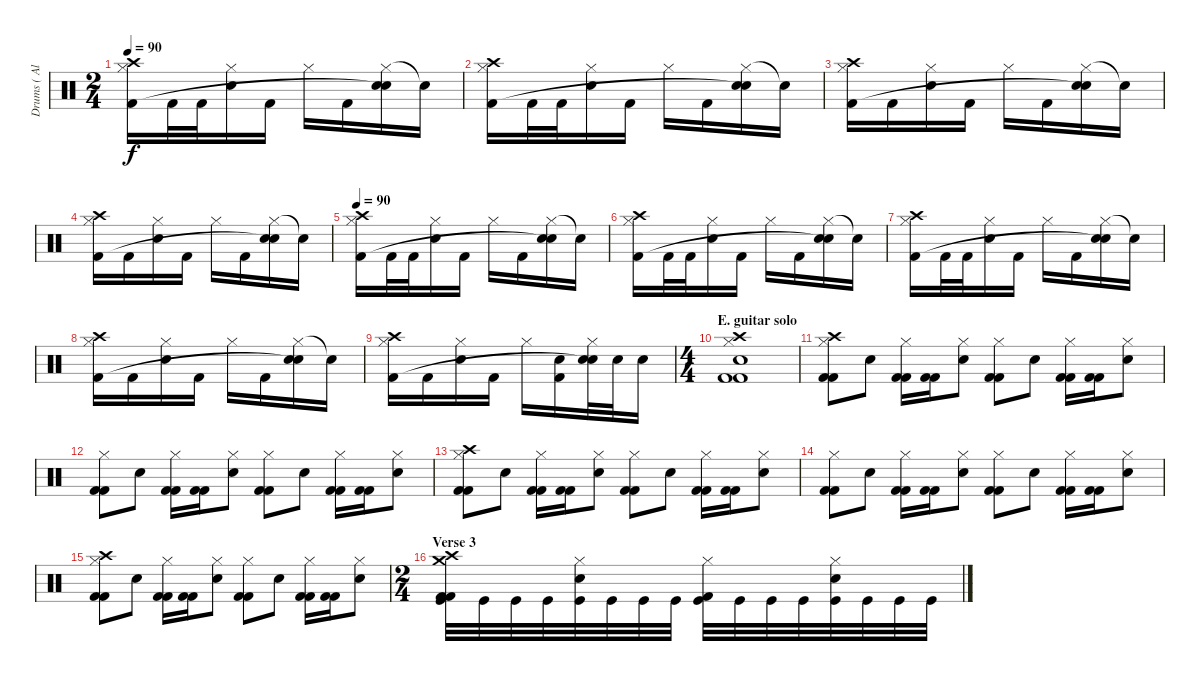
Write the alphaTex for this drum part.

\track ("Drums ( Alex Holzwarth)" "Drums ( Al") {instrument percussion}
\staff {score}
\articulation defaults
\ts (2 4)
\tempo 90
\clef neutral
\ks c
("Crash high (hit)" "Hi-Hat (closed)" "Kick (hit) 2").16{dy f} "Kick (hit) 2".32 "Kick (hit) 2".32 ("Hi-Hat (closed)" "Electric Snare (hit)").16 "Kick (hit) 2".16 "Hi-Hat (closed)".16 "Kick (hit) 2".16 ("Hi-Hat (closed)" "Electric Snare (hit)" "Snare (hit)"{t}).16 "Snare (hit)"{t}.16 |
("Crash high (hit)" "Hi-Hat (closed)" "Kick (hit) 2").16 "Kick (hit) 2".32 "Kick (hit) 2".32 ("Hi-Hat (closed)" "Electric Snare (hit)").16 "Kick (hit) 2".16 "Hi-Hat (closed)".16 "Kick (hit) 2".16 ("Hi-Hat (closed)" "Electric Snare (hit)" "Snare (hit)"{t}).16 "Snare (hit)"{t}.16 |
("Crash high (hit)" "Hi-Hat (closed)" "Kick (hit) 2").16 "Kick (hit) 2".16 ("Hi-Hat (closed)" "Electric Snare (hit)").16 "Kick (hit) 2".16 "Hi-Hat (closed)".16 "Kick (hit) 2".16 ("Hi-Hat (closed)" "Electric Snare (hit)" "Snare (hit)"{t}).16 "Snare (hit)"{t}.16 |
("Crash high (hit)" "Hi-Hat (closed)" "Kick (hit) 2").16 "Kick (hit) 2".16 ("Hi-Hat (closed)" "Electric Snare (hit)").16 "Kick (hit) 2".16 "Hi-Hat (closed)".16 "Kick (hit) 2".16 ("Hi-Hat (closed)" "Electric Snare (hit)" "Snare (hit)"{t}).16 "Snare (hit)"{t}.16 |
\tempo 90
("Crash high (hit)" "Hi-Hat (closed)" "Kick (hit) 2").16 "Kick (hit) 2".32 "Kick (hit) 2".32 ("Hi-Hat (closed)" "Electric Snare (hit)").16 "Kick (hit) 2".16 "Hi-Hat (closed)".16 "Kick (hit) 2".16 ("Hi-Hat (closed)" "Electric Snare (hit)" "Snare (hit)"{t}).16 "Snare (hit)"{t}.16 |
("Crash high (hit)" "Hi-Hat (closed)" "Kick (hit) 2").16 "Kick (hit) 2".32 "Kick (hit) 2".32 ("Hi-Hat (closed)" "Electric Snare (hit)").16 "Kick (hit) 2".16 "Hi-Hat (closed)".16 "Kick (hit) 2".16 ("Hi-Hat (closed)" "Electric Snare (hit)" "Snare (hit)"{t}).16 "Snare (hit)"{t}.16 |
("Crash high (hit)" "Hi-Hat (closed)" "Kick (hit) 2").16 "Kick (hit) 2".32 "Kick (hit) 2".32 ("Hi-Hat (closed)" "Electric Snare (hit)").16 "Kick (hit) 2".16 "Hi-Hat (closed)".16 "Kick (hit) 2".16 ("Hi-Hat (closed)" "Electric Snare (hit)" "Snare (hit)"{t}).16 "Snare (hit)"{t}.16 |
("Crash high (hit)" "Hi-Hat (closed)" "Kick (hit) 2").16 "Kick (hit) 2".16 ("Hi-Hat (closed)" "Electric Snare (hit)").16 "Kick (hit) 2".16 "Hi-Hat (closed)".16 "Kick (hit) 2".16 ("Hi-Hat (closed)" "Electric Snare (hit)" "Snare (hit)"{t}).16 "Snare (hit)"{t}.16 |
("Crash high (hit)" "Hi-Hat (closed)" "Kick (hit) 2").16 "Kick (hit) 2".16 ("Hi-Hat (closed)" "Electric Snare (hit)").16 "Kick (hit) 2".16 "Hi-Hat (closed)".16 ("Electric Snare (hit)" "Kick (hit) 2").16 ("Hi-Hat (closed)" "Electric Snare (hit)" "Snare (hit)"{t}).32 "Electric Snare (hit)".32 "Electric Snare (hit)".16 |
\ts (4 4)
\section ("" "E. guitar solo")
("Crash high (hit)" "Hi-Hat (closed)" "Electric Snare (hit)" "Kick (hit) 2" "Kick (hit) 2").1 |
("Crash high (hit)" "Hi-Hat (closed)" "Kick (hit) 2" "Kick (hit) 2").8 "Electric Snare (hit)".8 ("Hi-Hat (closed)" "Kick (hit) 2" "Kick (hit) 2").16 ("Kick (hit) 2" "Kick (hit) 2").16 ("Hi-Hat (closed)" "Electric Snare (hit)").8 ("Hi-Hat (closed)" "Kick (hit) 2" "Kick (hit) 2").8 "Electric Snare (hit)".8 ("Hi-Hat (closed)" "Kick (hit) 2" "Kick (hit) 2").16 ("Kick (hit) 2" "Kick (hit) 2").16 ("Hi-Hat (closed)" "Electric Snare (hit)").8 |
("Hi-Hat (closed)" "Kick (hit) 2" "Kick (hit) 2").8 "Electric Snare (hit)".8 ("Hi-Hat (closed)" "Kick (hit) 2" "Kick (hit) 2").16 ("Kick (hit) 2" "Kick (hit) 2").16 ("Hi-Hat (closed)" "Electric Snare (hit)").8 ("Hi-Hat (closed)" "Kick (hit) 2" "Kick (hit) 2").8 "Electric Snare (hit)".8 ("Hi-Hat (closed)" "Kick (hit) 2" "Kick (hit) 2").16 ("Kick (hit) 2" "Kick (hit) 2").16 ("Hi-Hat (closed)" "Electric Snare (hit)").8 |
("Crash high (hit)" "Hi-Hat (closed)" "Kick (hit) 2" "Kick (hit) 2").8 "Electric Snare (hit)".8 ("Hi-Hat (closed)" "Kick (hit) 2" "Kick (hit) 2").16 ("Kick (hit) 2" "Kick (hit) 2").16 ("Hi-Hat (closed)" "Electric Snare (hit)").8 ("Hi-Hat (closed)" "Kick (hit) 2" "Kick (hit) 2").8 "Electric Snare (hit)".8 ("Hi-Hat (closed)" "Kick (hit) 2" "Kick (hit) 2").16 ("Kick (hit) 2" "Kick (hit) 2").16 ("Hi-Hat (closed)" "Electric Snare (hit)").8 |
("Hi-Hat (closed)" "Kick (hit) 2" "Kick (hit) 2").8 "Electric Snare (hit)".8 ("Hi-Hat (closed)" "Kick (hit) 2" "Kick (hit) 2").16 ("Kick (hit) 2" "Kick (hit) 2").16 ("Hi-Hat (closed)" "Electric Snare (hit)").8 ("Hi-Hat (closed)" "Kick (hit) 2" "Kick (hit) 2").8 "Electric Snare (hit)".8 ("Hi-Hat (closed)" "Kick (hit) 2" "Kick (hit) 2").16 ("Kick (hit) 2" "Kick (hit) 2").16 ("Hi-Hat (closed)" "Electric Snare (hit)").8 |
("Crash high (hit)" "Hi-Hat (closed)" "Kick (hit) 2" "Kick (hit) 2").8 "Electric Snare (hit)".8 ("Hi-Hat (closed)" "Kick (hit) 2" "Kick (hit) 2").16 ("Kick (hit) 2" "Kick (hit) 2").16 ("Hi-Hat (closed)" "Electric Snare (hit)").8 ("Hi-Hat (closed)" "Kick (hit) 2" "Kick (hit) 2").8 "Electric Snare (hit)".8 ("Hi-Hat (closed)" "Kick (hit) 2" "Kick (hit) 2").16 ("Kick (hit) 2" "Kick (hit) 2").16 ("Hi-Hat (closed)" "Electric Snare (hit)").8 |
\ts (2 4)
\section ("" "Verse 3")
("Crash high (hit)" "Crash medium (hit)" "Kick (hit) 2" "Kick (hit) 2" "Kick (hit)").32 "Kick (hit)".32 "Kick (hit)".32 "Kick (hit)".32 ("Hi-Hat (closed)" "Snare (hit) 2" "Kick (hit)").32 "Kick (hit)".32 "Kick (hit)".32 "Kick (hit)".32 ("Hi-Hat (closed)" "Kick (hit) 2" "Kick (hit)").32 "Kick (hit)".32 "Kick (hit)".32 "Kick (hit)".32 ("Hi-Hat (closed)" "Snare (hit) 2" "Kick (hit)").32 "Kick (hit)".32 "Kick (hit)".32 "Kick (hit)".32
